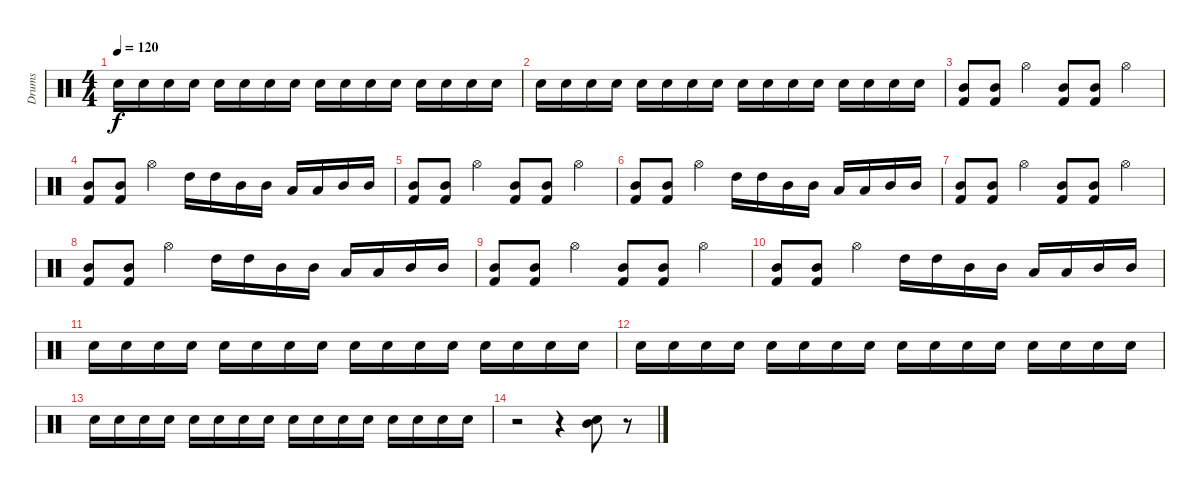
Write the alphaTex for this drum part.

\track ("Drums" "Drums") {instrument percussion}
\staff {score}
\articulation defaults
\ts (4 4)
\tempo 120
\clef neutral
\ks c "Electric Snare (hit)".16{dy f} "Electric Snare (hit)".16 "Electric Snare (hit)".16 "Electric Snare (hit)".16 "Electric Snare (hit)".16 "Electric Snare (hit)".16 "Electric Snare (hit)".16 "Electric Snare (hit)".16 "Electric Snare (hit)".16 "Electric Snare (hit)".16 "Electric Snare (hit)".16 "Electric Snare (hit)".16 "Electric Snare (hit)".16 "Electric Snare (hit)".16 "Electric Snare (hit)".16 "Electric Snare (hit)".16
|
"Electric Snare (hit)".16 "Electric Snare (hit)".16 "Electric Snare (hit)".16 "Electric Snare (hit)".16 "Electric Snare (hit)".16 "Electric Snare (hit)".16 "Electric Snare (hit)".16 "Electric Snare (hit)".16 "Electric Snare (hit)".16 "Electric Snare (hit)".16 "Electric Snare (hit)".16 "Electric Snare (hit)".16 "Electric Snare (hit)".16 "Electric Snare (hit)".16 "Electric Snare (hit)".16 "Electric Snare (hit)".16 |
("Kick (hit) 2" "Mid Tom (hit)").8 ("Kick (hit) 2" "Mid Tom (hit)").8 "Hi-Hat (open)".4 ("Kick (hit) 2" "Mid Tom (hit)").8 ("Kick (hit) 2" "Mid Tom (hit)").8 "Hi-Hat (open)".4 |
("Kick (hit) 2" "Mid Tom (hit)").8 ("Kick (hit) 2" "Mid Tom (hit)").8 "Hi-Hat (open)".4 "High Tom (hit)".16 "High Tom (hit)".16 "Mid Tom (hit)".16 "Mid Tom (hit)".16 "Low Tom (hit)".16 "Low Tom (hit)".16 "Mid Tom (hit)".16 "Mid Tom (hit)".16 |
("Kick (hit) 2" "Mid Tom (hit)").8 ("Kick (hit) 2" "Mid Tom (hit)").8 "Hi-Hat (open)".4 ("Kick (hit) 2" "Mid Tom (hit)").8 ("Kick (hit) 2" "Mid Tom (hit)").8 "Hi-Hat (open)".4 |
("Kick (hit) 2" "Mid Tom (hit)").8 ("Kick (hit) 2" "Mid Tom (hit)").8 "Hi-Hat (open)".4 "High Tom (hit)".16 "High Tom (hit)".16 "Mid Tom (hit)".16 "Mid Tom (hit)".16 "Low Tom (hit)".16 "Low Tom (hit)".16 "Mid Tom (hit)".16 "Mid Tom (hit)".16 |
("Kick (hit) 2" "Mid Tom (hit)").8 ("Kick (hit) 2" "Mid Tom (hit)").8 "Hi-Hat (open)".4 ("Kick (hit) 2" "Mid Tom (hit)").8 ("Kick (hit) 2" "Mid Tom (hit)").8 "Hi-Hat (open)".4 |
("Kick (hit) 2" "Mid Tom (hit)").8 ("Kick (hit) 2" "Mid Tom (hit)").8 "Hi-Hat (open)".4 "High Tom (hit)".16 "High Tom (hit)".16 "Mid Tom (hit)".16 "Mid Tom (hit)".16 "Low Tom (hit)".16 "Low Tom (hit)".16 "Mid Tom (hit)".16 "Mid Tom (hit)".16 |
("Kick (hit) 2" "Mid Tom (hit)").8 ("Kick (hit) 2" "Mid Tom (hit)").8 "Hi-Hat (open)".4 ("Kick (hit) 2" "Mid Tom (hit)").8 ("Kick (hit) 2" "Mid Tom (hit)").8 "Hi-Hat (open)".4 |
("Kick (hit) 2" "Mid Tom (hit)").8 ("Kick (hit) 2" "Mid Tom (hit)").8 "Hi-Hat (open)".4 "High Tom (hit)".16 "High Tom (hit)".16 "Mid Tom (hit)".16 "Mid Tom (hit)".16 "Low Tom (hit)".16 "Low Tom (hit)".16 "Mid Tom (hit)".16 "Mid Tom (hit)".16 |
"Electric Snare (hit)".16 "Electric Snare (hit)".16 "Electric Snare (hit)".16 "Electric Snare (hit)".16 "Electric Snare (hit)".16 "Electric Snare (hit)".16 "Electric Snare (hit)".16 "Electric Snare (hit)".16 "Electric Snare (hit)".16 "Electric Snare (hit)".16 "Electric Snare (hit)".16 "Electric Snare (hit)".16 "Electric Snare (hit)".16 "Electric Snare (hit)".16 "Electric Snare (hit)".16 "Electric Snare (hit)".16 |
"Electric Snare (hit)".16 "Electric Snare (hit)".16 "Electric Snare (hit)".16 "Electric Snare (hit)".16 "Electric Snare (hit)".16 "Electric Snare (hit)".16 "Electric Snare (hit)".16 "Electric Snare (hit)".16 "Electric Snare (hit)".16 "Electric Snare (hit)".16 "Electric Snare (hit)".16 "Electric Snare (hit)".16 "Electric Snare (hit)".16 "Electric Snare (hit)".16 "Electric Snare (hit)".16 "Electric Snare (hit)".16 |
"Electric Snare (hit)".16 "Electric Snare (hit)".16 "Electric Snare (hit)".16 "Electric Snare (hit)".16 "Electric Snare (hit)".16 "Electric Snare (hit)".16 "Electric Snare (hit)".16 "Electric Snare (hit)".16 "Electric Snare (hit)".16 "Electric Snare (hit)".16 "Electric Snare (hit)".16 "Electric Snare (hit)".16 "Electric Snare (hit)".16 "Electric Snare (hit)".16 "Electric Snare (hit)".16 "Electric Snare (hit)".16 |
r.2 r.4 ("Mid Tom (hit)" "Electric Snare (hit)").8 r.8
